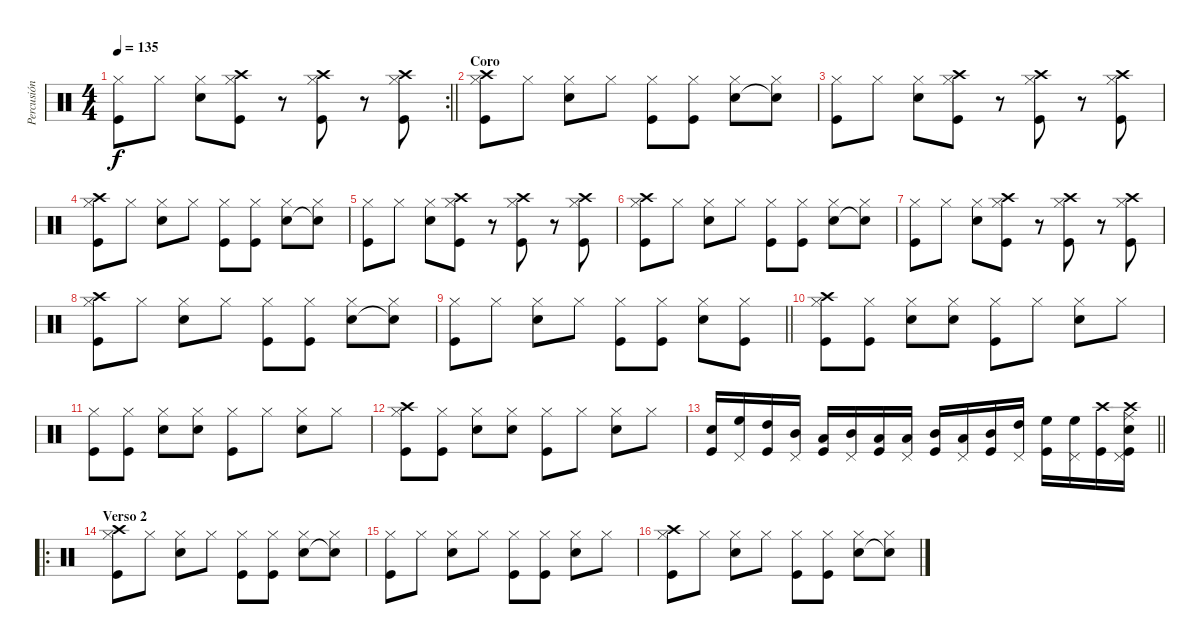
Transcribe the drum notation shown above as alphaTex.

\track ("Percusión" "Percusión") {instrument percussion}
\staff {score}
\articulation defaults
\rc 2
\ts (4 4)
\tempo 135
\clef neutral
\barLineRight lightlight
\ks c
("Hi-Hat (closed)" "Kick (hit)").8{dy f} "Hi-Hat (closed)".8 ("Hi-Hat (closed)" "Snare (hit) 2").8 ("Hi-Hat (closed)" "Crash high (hit)" "Kick (hit)").8 r.8 ("Hi-Hat (closed)" "Crash high (hit)" "Kick (hit)").8 r.8 ("Hi-Hat (closed)" "Crash high (hit)" "Kick (hit)").8 |
\section ("" "Coro")
("Hi-Hat (closed)" "Crash high (hit)" "Kick (hit)").8 "Hi-Hat (closed)".8 ("Hi-Hat (closed)" "Snare (hit) 2").8 "Hi-Hat (closed)".8 ("Hi-Hat (closed)" "Kick (hit)").8 ("Hi-Hat (closed)" "Kick (hit)").8 ("Hi-Hat (closed)" "Snare (hit) 2").8 ("Hi-Hat (closed)" "Snare (hit)"{t}).8 |
("Hi-Hat (closed)" "Kick (hit)").8 "Hi-Hat (closed)".8 ("Hi-Hat (closed)" "Snare (hit) 2").8 ("Hi-Hat (closed)" "Crash high (hit)" "Kick (hit)").8 r.8 ("Hi-Hat (closed)" "Crash high (hit)" "Kick (hit)").8 r.8 ("Hi-Hat (closed)" "Crash high (hit)" "Kick (hit)").8 |
("Hi-Hat (closed)" "Crash high (hit)" "Kick (hit)").8 "Hi-Hat (closed)".8 ("Hi-Hat (closed)" "Snare (hit) 2").8 "Hi-Hat (closed)".8 ("Hi-Hat (closed)" "Kick (hit)").8 ("Hi-Hat (closed)" "Kick (hit)").8 ("Hi-Hat (closed)" "Snare (hit) 2").8 ("Hi-Hat (closed)" "Snare (hit)"{t}).8 |
("Hi-Hat (closed)" "Kick (hit)").8 "Hi-Hat (closed)".8 ("Hi-Hat (closed)" "Snare (hit) 2").8 ("Hi-Hat (closed)" "Crash high (hit)" "Kick (hit)").8 r.8 ("Hi-Hat (closed)" "Crash high (hit)" "Kick (hit)").8 r.8 ("Hi-Hat (closed)" "Crash high (hit)" "Kick (hit)").8 |
("Hi-Hat (closed)" "Crash high (hit)" "Kick (hit)").8 "Hi-Hat (closed)".8 ("Hi-Hat (closed)" "Snare (hit) 2").8 "Hi-Hat (closed)".8 ("Hi-Hat (closed)" "Kick (hit)").8 ("Hi-Hat (closed)" "Kick (hit)").8 ("Hi-Hat (closed)" "Snare (hit) 2").8 ("Hi-Hat (closed)" "Snare (hit)"{t}).8 |
("Hi-Hat (closed)" "Kick (hit)").8 "Hi-Hat (closed)".8 ("Hi-Hat (closed)" "Snare (hit) 2").8 ("Hi-Hat (closed)" "Crash high (hit)" "Kick (hit)").8 r.8 ("Hi-Hat (closed)" "Crash high (hit)" "Kick (hit)").8 r.8 ("Hi-Hat (closed)" "Crash high (hit)" "Kick (hit)").8 |
("Hi-Hat (closed)" "Crash high (hit)" "Kick (hit)").8 "Hi-Hat (closed)".8 ("Hi-Hat (closed)" "Snare (hit) 2").8 "Hi-Hat (closed)".8 ("Hi-Hat (closed)" "Kick (hit)").8 ("Hi-Hat (closed)" "Kick (hit)").8 ("Hi-Hat (closed)" "Snare (hit) 2").8 ("Hi-Hat (closed)" "Snare (hit)"{t}).8 |
\barLineRight lightlight
("Hi-Hat (closed)" "Kick (hit)").8 "Hi-Hat (closed)".8 ("Hi-Hat (closed)" "Snare (hit) 2").8 "Hi-Hat (closed)".8 ("Hi-Hat (closed)" "Kick (hit)").8 ("Hi-Hat (closed)" "Kick (hit)").8 ("Hi-Hat (closed)" "Snare (hit) 2").8 ("Hi-Hat (closed)" "Kick (hit)").8 |
("Hi-Hat (closed)" "Crash high (hit)" "Kick (hit)").8 ("Hi-Hat (closed)" "Kick (hit)").8 ("Hi-Hat (closed)" "Snare (hit) 2").8 ("Hi-Hat (closed)" "Snare (hit) 2").8 ("Hi-Hat (closed)" "Kick (hit)").8 "Hi-Hat (closed)".8 ("Hi-Hat (closed)" "Snare (hit) 2").8 "Hi-Hat (closed)".8 |
("Hi-Hat (closed)" "Kick (hit)").8 ("Hi-Hat (closed)" "Kick (hit)").8 ("Hi-Hat (closed)" "Snare (hit) 2").8 ("Hi-Hat (closed)" "Snare (hit) 2").8 ("Hi-Hat (closed)" "Kick (hit)").8 "Hi-Hat (closed)".8 ("Hi-Hat (closed)" "Snare (hit) 2").8 "Hi-Hat (closed)".8 |
("Hi-Hat (closed)" "Crash high (hit)" "Kick (hit)").8 ("Hi-Hat (closed)" "Kick (hit)").8 ("Hi-Hat (closed)" "Snare (hit) 2").8 ("Hi-Hat (closed)" "Snare (hit) 2").8 ("Hi-Hat (closed)" "Kick (hit)").8 "Hi-Hat (closed)".8 ("Hi-Hat (closed)" "Snare (hit) 2").8 "Hi-Hat (closed)".8 |
\barLineRight lightlight
("Snare (hit) 2" "Kick (hit)").16 ("High Floor Tom (hit)" "Pedal Hi-Hat (hit)").16 ("High Tom (hit)" "Kick (hit)").16 ("Mid Tom (hit)" "Pedal Hi-Hat (hit)").16 ("Low Floor Tom (hit)" "Kick (hit)").16 ("Mid Tom (hit)" "Pedal Hi-Hat (hit)").16 ("Low Floor Tom (hit)" "Kick (hit)").16 ("Low Floor Tom (hit)" "Pedal Hi-Hat (hit)").16 ("Mid Tom (hit)" "Kick (hit)").16 ("Low Floor Tom (hit)" "Pedal Hi-Hat (hit)").16 ("Mid Tom (hit)" "Kick (hit)").16 ("High Tom (hit)" "Pedal Hi-Hat (hit)").16 ("High Floor Tom (hit)" "Kick (hit)").16 ("High Floor Tom (hit)" "Pedal Hi-Hat (hit)").16 ("Crash high (hit)" "Kick (hit)").16 ("Crash high (hit)" "Ride (middle)" "Snare (hit) 2" "Pedal Hi-Hat (hit)" "Kick (hit)").16 |
\ro
\section ("" "Verso 2")
("Hi-Hat (closed)" "Crash high (hit)" "Kick (hit)").8 "Hi-Hat (closed)".8 ("Hi-Hat (closed)" "Snare (hit) 2").8 "Hi-Hat (closed)".8 ("Hi-Hat (closed)" "Kick (hit)").8 ("Hi-Hat (closed)" "Kick (hit)").8 ("Hi-Hat (closed)" "Snare (hit) 2").8 ("Hi-Hat (closed)" "Snare (hit)"{t}).8 |
("Hi-Hat (closed)" "Kick (hit)").8 "Hi-Hat (closed)".8 ("Hi-Hat (closed)" "Snare (hit) 2").8 "Hi-Hat (closed)".8 ("Hi-Hat (closed)" "Kick (hit)").8 ("Hi-Hat (closed)" "Kick (hit)").8 ("Hi-Hat (closed)" "Snare (hit) 2").8 "Hi-Hat (closed)".8 |
("Hi-Hat (closed)" "Crash high (hit)" "Kick (hit)").8 "Hi-Hat (closed)".8 ("Hi-Hat (closed)" "Snare (hit) 2").8 "Hi-Hat (closed)".8 ("Hi-Hat (closed)" "Kick (hit)").8 ("Hi-Hat (closed)" "Kick (hit)").8 ("Hi-Hat (closed)" "Snare (hit) 2").8 ("Hi-Hat (closed)" "Snare (hit)"{t}).8
